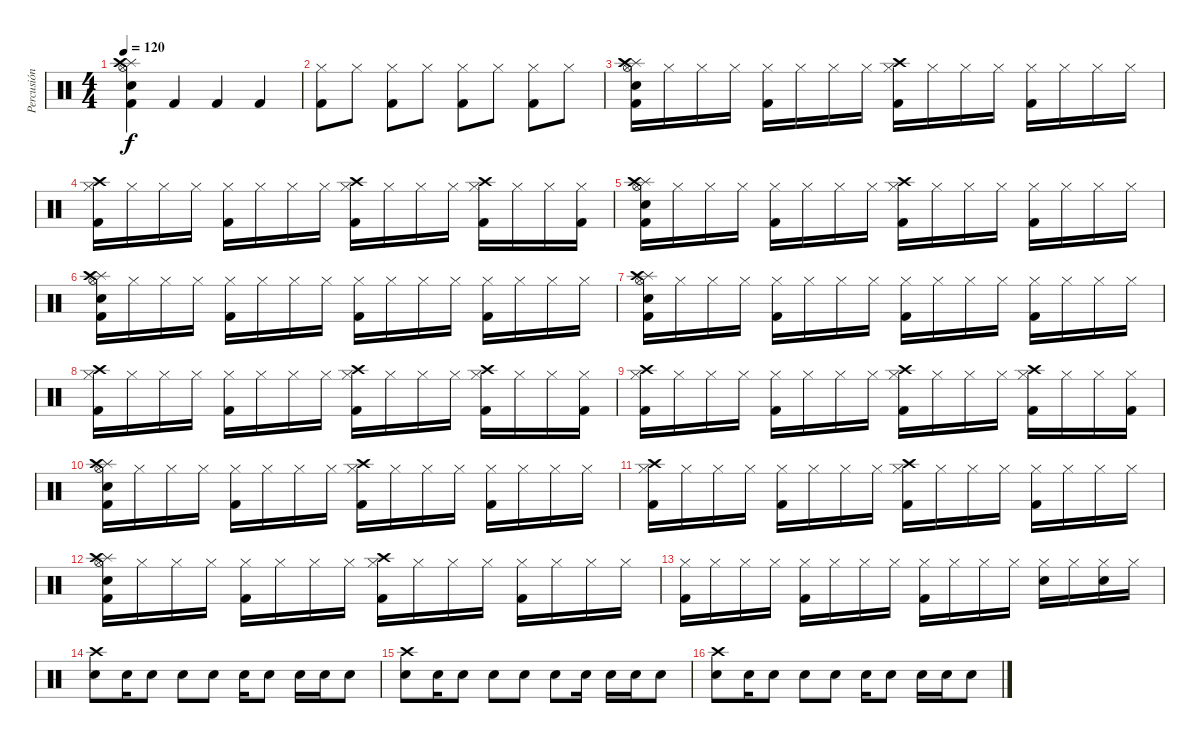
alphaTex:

\track ("Percusión" "Percusión") {instrument percussion}
\staff {score}
\articulation defaults
\ts (4 4)
\tempo 120
\clef neutral
\ks c
("Hi-Hat (open)" "Splash (hit)" "Crash high (hit)" "Kick (hit) 2" "Snare (hit) 2").4{dy f} "Kick (hit) 2".4 "Kick (hit) 2".4 "Kick (hit) 2".4 |
("Hi-Hat (closed)" "Kick (hit) 2").8 "Hi-Hat (closed)".8 ("Hi-Hat (closed)" "Kick (hit) 2").8 "Hi-Hat (closed)".8 ("Hi-Hat (closed)" "Kick (hit) 2").8 "Hi-Hat (closed)".8 ("Hi-Hat (closed)" "Kick (hit) 2").8 "Hi-Hat (closed)".8 |
("Hi-Hat (open)" "Splash (hit)" "Crash high (hit)" "Kick (hit) 2" "Snare (hit) 2").16 "Hi-Hat (closed)".16 "Hi-Hat (closed)".16 "Hi-Hat (closed)".16 ("Hi-Hat (closed)" "Kick (hit) 2").16 "Hi-Hat (closed)".16 "Hi-Hat (closed)".16 "Hi-Hat (closed)".16 ("Hi-Hat (closed)" "Kick (hit) 2" "Crash high (hit)").16 "Hi-Hat (closed)".16 "Hi-Hat (closed)".16 "Hi-Hat (closed)".16 ("Hi-Hat (closed)" "Kick (hit) 2").16 "Hi-Hat (closed)".16 "Hi-Hat (closed)".16 "Hi-Hat (closed)".16 |
("Hi-Hat (closed)" "Kick (hit) 2" "Crash high (hit)").16 "Hi-Hat (closed)".16 "Hi-Hat (closed)".16 "Hi-Hat (closed)".16 ("Hi-Hat (closed)" "Kick (hit) 2").16 "Hi-Hat (closed)".16 "Hi-Hat (closed)".16 "Hi-Hat (closed)".16 ("Hi-Hat (closed)" "Kick (hit) 2" "Crash high (hit)").16 "Hi-Hat (closed)".16 "Hi-Hat (closed)".16 "Hi-Hat (closed)".16 ("Hi-Hat (closed)" "Kick (hit) 2" "Crash high (hit)").16 "Hi-Hat (closed)".16 "Hi-Hat (closed)".16 ("Hi-Hat (closed)" "Kick (hit) 2").16 |
("Hi-Hat (open)" "Splash (hit)" "Crash high (hit)" "Kick (hit) 2" "Snare (hit) 2").16 "Hi-Hat (closed)".16 "Hi-Hat (closed)".16 "Hi-Hat (closed)".16 ("Hi-Hat (closed)" "Kick (hit) 2").16 "Hi-Hat (closed)".16 "Hi-Hat (closed)".16 "Hi-Hat (closed)".16 ("Hi-Hat (closed)" "Kick (hit) 2" "Crash high (hit)").16 "Hi-Hat (closed)".16 "Hi-Hat (closed)".16 "Hi-Hat (closed)".16 ("Hi-Hat (closed)" "Kick (hit) 2").16 "Hi-Hat (closed)".16 "Hi-Hat (closed)".16 "Hi-Hat (closed)".16 |
("Hi-Hat (open)" "Splash (hit)" "Crash high (hit)" "Kick (hit) 2" "Snare (hit) 2").16 "Hi-Hat (closed)".16 "Hi-Hat (closed)".16 "Hi-Hat (closed)".16 ("Hi-Hat (closed)" "Kick (hit) 2").16 "Hi-Hat (closed)".16 "Hi-Hat (closed)".16 "Hi-Hat (closed)".16 ("Hi-Hat (closed)" "Kick (hit) 2").16 "Hi-Hat (closed)".16 "Hi-Hat (closed)".16 "Hi-Hat (closed)".16 ("Hi-Hat (closed)" "Kick (hit) 2").16 "Hi-Hat (closed)".16 "Hi-Hat (closed)".16 "Hi-Hat (closed)".16 |
("Hi-Hat (open)" "Splash (hit)" "Crash high (hit)" "Kick (hit) 2" "Snare (hit) 2").16 "Hi-Hat (closed)".16 "Hi-Hat (closed)".16 "Hi-Hat (closed)".16 ("Hi-Hat (closed)" "Kick (hit) 2").16 "Hi-Hat (closed)".16 "Hi-Hat (closed)".16 "Hi-Hat (closed)".16 ("Hi-Hat (closed)" "Kick (hit) 2").16 "Hi-Hat (closed)".16 "Hi-Hat (closed)".16 "Hi-Hat (closed)".16 ("Hi-Hat (closed)" "Kick (hit) 2").16 "Hi-Hat (closed)".16 "Hi-Hat (closed)".16 "Hi-Hat (closed)".16 |
("Hi-Hat (closed)" "Kick (hit) 2" "Crash high (hit)").16 "Hi-Hat (closed)".16 "Hi-Hat (closed)".16 "Hi-Hat (closed)".16 ("Hi-Hat (closed)" "Kick (hit) 2").16 "Hi-Hat (closed)".16 "Hi-Hat (closed)".16 "Hi-Hat (closed)".16 ("Hi-Hat (closed)" "Kick (hit) 2" "Crash high (hit)").16 "Hi-Hat (closed)".16 "Hi-Hat (closed)".16 "Hi-Hat (closed)".16 ("Hi-Hat (closed)" "Kick (hit) 2" "Crash high (hit)").16 "Hi-Hat (closed)".16 "Hi-Hat (closed)".16 ("Hi-Hat (closed)" "Kick (hit) 2").16 |
("Hi-Hat (closed)" "Kick (hit) 2" "Crash high (hit)").16 "Hi-Hat (closed)".16 "Hi-Hat (closed)".16 "Hi-Hat (closed)".16 ("Hi-Hat (closed)" "Kick (hit) 2").16 "Hi-Hat (closed)".16 "Hi-Hat (closed)".16 "Hi-Hat (closed)".16 ("Hi-Hat (closed)" "Kick (hit) 2" "Crash high (hit)").16 "Hi-Hat (closed)".16 "Hi-Hat (closed)".16 "Hi-Hat (closed)".16 ("Hi-Hat (closed)" "Kick (hit) 2" "Crash high (hit)").16 "Hi-Hat (closed)".16 "Hi-Hat (closed)".16 ("Hi-Hat (closed)" "Kick (hit) 2").16 |
("Hi-Hat (open)" "Splash (hit)" "Crash high (hit)" "Kick (hit) 2" "Snare (hit) 2").16 "Hi-Hat (closed)".16 "Hi-Hat (closed)".16 "Hi-Hat (closed)".16 ("Hi-Hat (closed)" "Kick (hit) 2").16 "Hi-Hat (closed)".16 "Hi-Hat (closed)".16 "Hi-Hat (closed)".16 ("Hi-Hat (closed)" "Kick (hit) 2" "Crash high (hit)").16 "Hi-Hat (closed)".16 "Hi-Hat (closed)".16 "Hi-Hat (closed)".16 ("Hi-Hat (closed)" "Kick (hit) 2").16 "Hi-Hat (closed)".16 "Hi-Hat (closed)".16 "Hi-Hat (closed)".16 |
("Hi-Hat (closed)" "Crash high (hit)" "Kick (hit) 2").16 "Hi-Hat (closed)".16 "Hi-Hat (closed)".16 "Hi-Hat (closed)".16 ("Hi-Hat (closed)" "Kick (hit) 2").16 "Hi-Hat (closed)".16 "Hi-Hat (closed)".16 "Hi-Hat (closed)".16 ("Hi-Hat (closed)" "Kick (hit) 2" "Crash high (hit)").16 "Hi-Hat (closed)".16 "Hi-Hat (closed)".16 "Hi-Hat (closed)".16 ("Hi-Hat (closed)" "Kick (hit) 2").16 "Hi-Hat (closed)".16 "Hi-Hat (closed)".16 "Hi-Hat (closed)".16 |
("Hi-Hat (open)" "Splash (hit)" "Crash high (hit)" "Kick (hit) 2" "Snare (hit) 2").16 "Hi-Hat (closed)".16 "Hi-Hat (closed)".16 "Hi-Hat (closed)".16 ("Hi-Hat (closed)" "Kick (hit) 2").16 "Hi-Hat (closed)".16 "Hi-Hat (closed)".16 "Hi-Hat (closed)".16 ("Hi-Hat (closed)" "Kick (hit) 2" "Crash high (hit)").16 "Hi-Hat (closed)".16 "Hi-Hat (closed)".16 "Hi-Hat (closed)".16 ("Hi-Hat (closed)" "Kick (hit) 2").16 "Hi-Hat (closed)".16 "Hi-Hat (closed)".16 "Hi-Hat (closed)".16 |
("Hi-Hat (closed)" "Kick (hit) 2").16 "Hi-Hat (closed)".16 "Hi-Hat (closed)".16 "Hi-Hat (closed)".16 ("Hi-Hat (closed)" "Kick (hit) 2").16 "Hi-Hat (closed)".16 "Hi-Hat (closed)".16 "Hi-Hat (closed)".16 ("Hi-Hat (closed)" "Kick (hit) 2").16 "Hi-Hat (closed)".16 "Hi-Hat (closed)".16 "Hi-Hat (closed)".16 ("Hi-Hat (closed)" "Snare (hit) 2").16 "Hi-Hat (closed)".16 ("Hi-Hat (closed)" "Snare (hit) 2").16 "Hi-Hat (closed)".16 |
("Crash high (hit)" "Snare (hit) 2").8 "Snare (hit) 2".16 "Snare (hit) 2".8 "Snare (hit) 2".8 "Snare (hit) 2".8 "Snare (hit) 2".16 "Snare (hit) 2".8 "Snare (hit) 2".16 "Snare (hit) 2".16 "Snare (hit) 2".8 |
("Crash high (hit)" "Snare (hit) 2").8 "Snare (hit) 2".16 "Snare (hit) 2".8 "Snare (hit) 2".8 "Snare (hit) 2".8 "Snare (hit) 2".8 "Snare (hit) 2".16 "Snare (hit) 2".16 "Snare (hit) 2".16 "Snare (hit) 2".8 |
("Crash high (hit)" "Snare (hit) 2").8 "Snare (hit) 2".16 "Snare (hit) 2".8 "Snare (hit) 2".8 "Snare (hit) 2".8 "Snare (hit) 2".16 "Snare (hit) 2".8 "Snare (hit) 2".16 "Snare (hit) 2".16 "Snare (hit) 2".8
